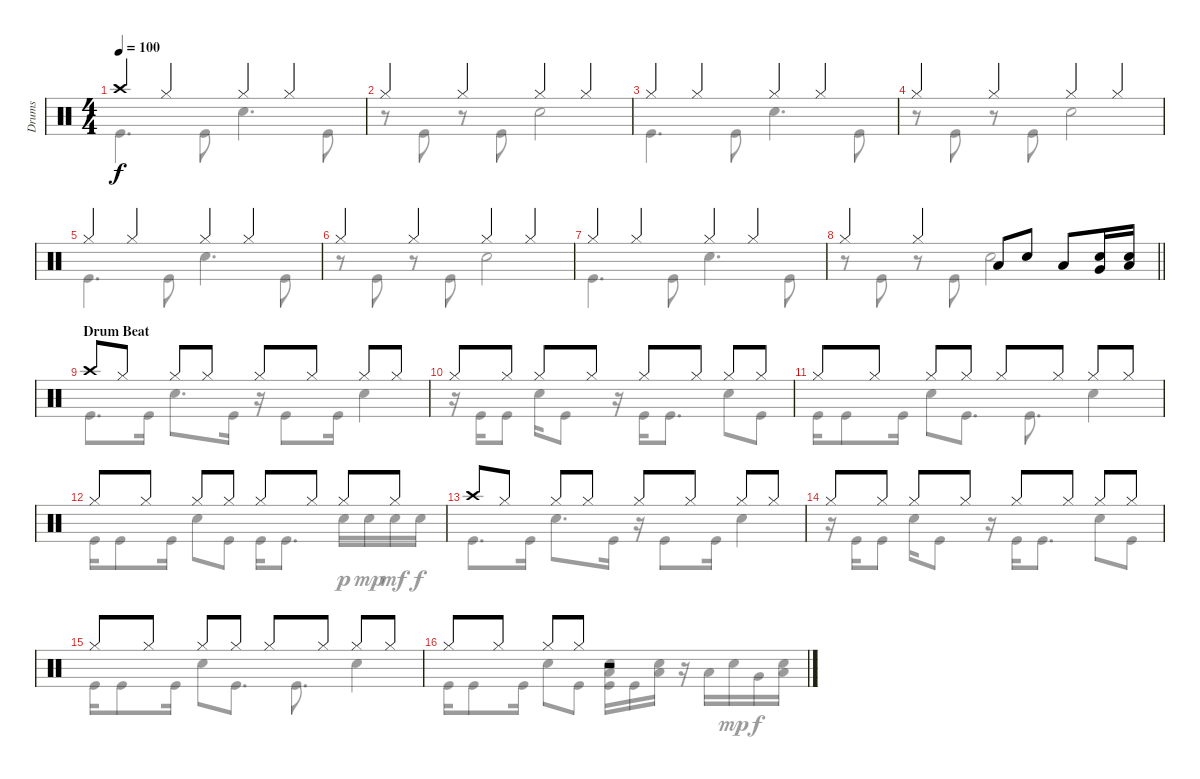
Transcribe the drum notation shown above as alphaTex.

\track ("Drums" "Drums") {instrument percussion}
\staff {score}
\articulation defaults
\voice
\ts (4 4)
\tempo 100
\clef neutral
\ks c "Crash high (hit)".4{dy f} "Hi-Hat (closed)".4 "Hi-Hat (closed)".4 "Hi-Hat (closed)".4
|
"Hi-Hat (closed)".4 "Hi-Hat (closed)".4 "Hi-Hat (closed)".4 "Hi-Hat (closed)".4 |
"Hi-Hat (closed)".4 "Hi-Hat (closed)".4 "Hi-Hat (closed)".4 "Hi-Hat (closed)".4 |
"Hi-Hat (closed)".4 "Hi-Hat (closed)".4 "Hi-Hat (closed)".4 "Hi-Hat (closed)".4 |
"Hi-Hat (closed)".4 "Hi-Hat (closed)".4 "Hi-Hat (closed)".4 "Hi-Hat (closed)".4 |
"Hi-Hat (closed)".4 "Hi-Hat (closed)".4 "Hi-Hat (closed)".4 "Hi-Hat (closed)".4 |
"Hi-Hat (closed)".4 "Hi-Hat (closed)".4 "Hi-Hat (closed)".4 "Hi-Hat (closed)".4 |
\barLineRight lightlight "Hi-Hat (closed)".4 "Hi-Hat (closed)".4 "Low Tom (hit)".8 "Snare (hit) 2".8 "Low Tom (hit)".8
("Snare (hit) 2" "Very Low Tom (hit)").16 ("Snare (hit) 2" "Low Floor Tom (hit)").16 |
\section ("" "Drum Beat")
"Crash high (hit)".8 "Hi-Hat (closed)".8 "Hi-Hat (closed)".8 "Hi-Hat (closed)".8 "Hi-Hat (closed)".8 "Hi-Hat (closed)".8 "Hi-Hat (closed)".8 "Hi-Hat (closed)".8 |
"Hi-Hat (closed)".8 "Hi-Hat (closed)".8 "Hi-Hat (closed)".8 "Hi-Hat (closed)".8 "Hi-Hat (closed)".8 "Hi-Hat (closed)".8 "Hi-Hat (closed)".8 "Hi-Hat (closed)".8 |
"Hi-Hat (closed)".8 "Hi-Hat (closed)".8 "Hi-Hat (closed)".8 "Hi-Hat (closed)".8 "Hi-Hat (closed)".8 "Hi-Hat (closed)".8 "Hi-Hat (closed)".8 "Hi-Hat (closed)".8 |
"Hi-Hat (closed)".8 "Hi-Hat (closed)".8 "Hi-Hat (closed)".8 "Hi-Hat (closed)".8 "Hi-Hat (closed)".8 "Hi-Hat (closed)".8 "Hi-Hat (closed)".8 "Hi-Hat (closed)".8 |
"Crash high (hit)".8 "Hi-Hat (closed)".8 "Hi-Hat (closed)".8 "Hi-Hat (closed)".8 "Hi-Hat (closed)".8 "Hi-Hat (closed)".8 "Hi-Hat (closed)".8 "Hi-Hat (closed)".8 |
"Hi-Hat (closed)".8 "Hi-Hat (closed)".8 "Hi-Hat (closed)".8 "Hi-Hat (closed)".8 "Hi-Hat (closed)".8 "Hi-Hat (closed)".8 "Hi-Hat (closed)".8 "Hi-Hat (closed)".8 |
"Hi-Hat (closed)".8 "Hi-Hat (closed)".8 "Hi-Hat (closed)".8 "Hi-Hat (closed)".8 "Hi-Hat (closed)".8 "Hi-Hat (closed)".8 "Hi-Hat (closed)".8 "Hi-Hat (closed)".8 |
"Hi-Hat (closed)".8 "Hi-Hat (closed)".8 "Hi-Hat (closed)".8 "Hi-Hat (closed)".8 r.2
\voice
\clef neutral
\ottava regular
\simile none
\ks c "Kick (hit)".4{d dy f} "Kick (hit)".8 "Snare (hit) 2".4{d} "Kick (hit)".8
|
r.8 "Kick (hit)".8 r.8 "Kick (hit)".8 "Snare (hit) 2".2 |
"Kick (hit)".4{d} "Kick (hit)".8 "Snare (hit) 2".4{d} "Kick (hit)".8 |
r.8 "Kick (hit)".8 r.8 "Kick (hit)".8 "Snare (hit) 2".2 |
"Kick (hit)".4{d} "Kick (hit)".8 "Snare (hit) 2".4{d} "Kick (hit)".8 |
r.8 "Kick (hit)".8 r.8 "Kick (hit)".8 "Snare (hit) 2".2 |
"Kick (hit)".4{d} "Kick (hit)".8 "Snare (hit) 2".4{d} "Kick (hit)".8 |
\barLineRight lightlight
r.8 "Kick (hit)".8 r.8 "Kick (hit)".8 "Snare (hit) 2".2 |
"Kick (hit)".8{d} "Kick (hit)".16 "Snare (hit) 2".8{d} "Kick (hit)".16 r.16 "Kick (hit)".8 "Kick (hit)".16 "Snare (hit) 2".4 |
r.16 "Kick (hit)".16 "Kick (hit)".8 "Snare (hit) 2".16 "Kick (hit)".8 r.16 "Kick (hit)".16 "Kick (hit)".8{d} "Snare (hit) 2".8 "Kick (hit)".8 |
"Kick (hit)".16 "Kick (hit)".8 "Kick (hit)".16 "Snare (hit) 2".8 "Kick (hit)".8{d} "Kick (hit)".8{d} "Snare (hit) 2".4 |
"Kick (hit)".16 "Kick (hit)".8 "Kick (hit)".16 "Snare (hit) 2".8 "Kick (hit)".8 "Kick (hit)".16 "Kick (hit)".8{d} "Snare (hit) 2".16{dy p} "Snare (hit) 2".16{dy mp} "Snare (hit) 2".16{dy mf} "Snare (hit) 2".16{dy f} |
"Kick (hit)".8{d} "Kick (hit)".16 "Snare (hit) 2".8{d} "Kick (hit)".16 r.16 "Kick (hit)".8 "Kick (hit)".16 "Snare (hit) 2".4 |
r.16 "Kick (hit)".16 "Kick (hit)".8 "Snare (hit) 2".16 "Kick (hit)".8 r.16 "Kick (hit)".16 "Kick (hit)".8{d} "Snare (hit) 2".8 "Kick (hit)".8 |
"Kick (hit)".16 "Kick (hit)".8 "Kick (hit)".16 "Snare (hit) 2".8 "Kick (hit)".8{d} "Kick (hit)".8{d} "Snare (hit) 2".4 |
"Kick (hit)".16 "Kick (hit)".8 "Kick (hit)".16 "Snare (hit) 2".8 "Kick (hit)".8 ("Snare (hit) 2" "Low Floor Tom (hit)" "Kick (hit)").16 "Kick (hit)".16 ("Snare (hit) 2" "Low Floor Tom (hit)").16 r.16 "Low Tom (hit)".16 "Snare (hit) 2".16{dy mp} "Very Low Tom (hit)".16{dy f} ("Snare (hit) 2" "Low Floor Tom (hit)").16
